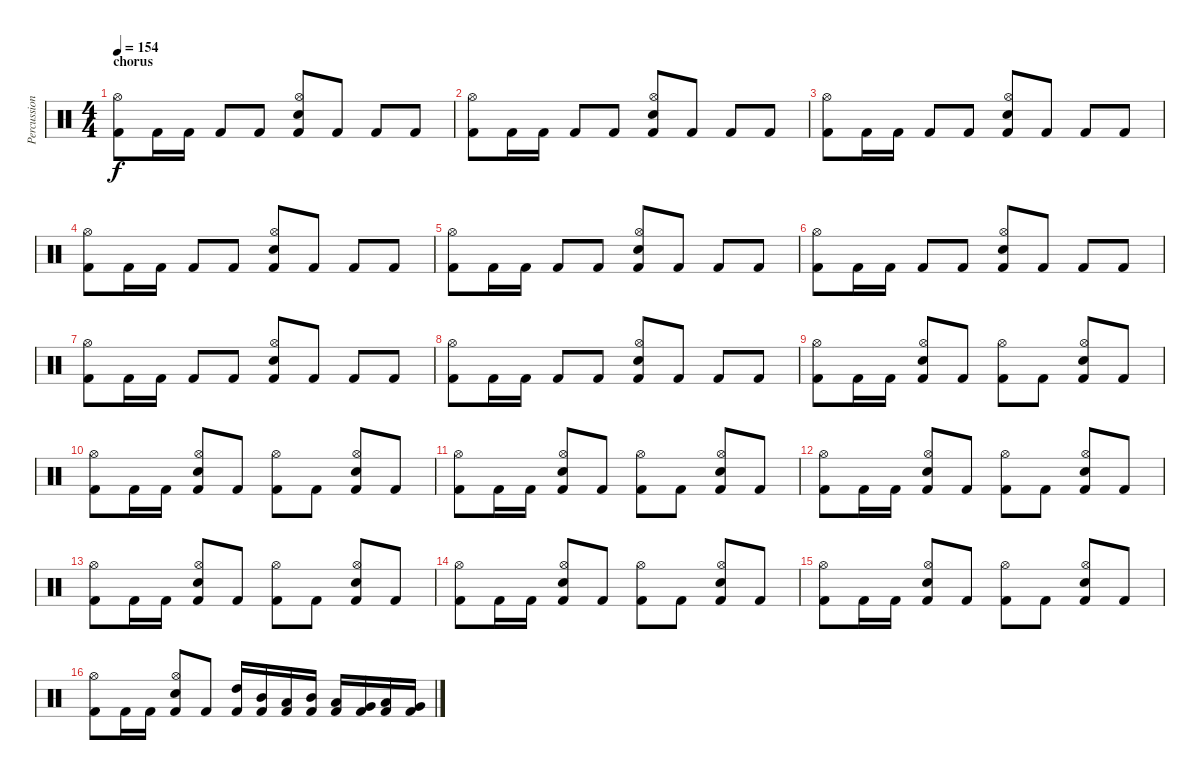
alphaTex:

\track ("Percussion" "Percussion") {instrument percussion}
\staff {score}
\articulation defaults
\ts (4 4)
\section ("" "chorus")
\tempo 154
\clef neutral
\ks c
("Kick (hit) 2" "Hi-Hat (open)").8{dy f} "Kick (hit) 2".16 "Kick (hit) 2".16 "Kick (hit) 2".8 "Kick (hit) 2".8 ("Kick (hit) 2" "Hi-Hat (open)" "Electric Snare (hit)").8 "Kick (hit) 2".8 "Kick (hit) 2".8 "Kick (hit) 2".8 |
("Kick (hit) 2" "Hi-Hat (open)").8 "Kick (hit) 2".16 "Kick (hit) 2".16 "Kick (hit) 2".8 "Kick (hit) 2".8 ("Kick (hit) 2" "Hi-Hat (open)" "Electric Snare (hit)").8 "Kick (hit) 2".8 "Kick (hit) 2".8 "Kick (hit) 2".8 |
("Kick (hit) 2" "Hi-Hat (open)").8 "Kick (hit) 2".16 "Kick (hit) 2".16 "Kick (hit) 2".8 "Kick (hit) 2".8 ("Kick (hit) 2" "Hi-Hat (open)" "Electric Snare (hit)").8 "Kick (hit) 2".8 "Kick (hit) 2".8 "Kick (hit) 2".8 |
("Kick (hit) 2" "Hi-Hat (open)").8 "Kick (hit) 2".16 "Kick (hit) 2".16 "Kick (hit) 2".8 "Kick (hit) 2".8 ("Kick (hit) 2" "Hi-Hat (open)" "Electric Snare (hit)").8 "Kick (hit) 2".8 "Kick (hit) 2".8 "Kick (hit) 2".8 |
("Kick (hit) 2" "Hi-Hat (open)").8 "Kick (hit) 2".16 "Kick (hit) 2".16 "Kick (hit) 2".8 "Kick (hit) 2".8 ("Kick (hit) 2" "Hi-Hat (open)" "Electric Snare (hit)").8 "Kick (hit) 2".8 "Kick (hit) 2".8 "Kick (hit) 2".8 |
("Kick (hit) 2" "Hi-Hat (open)").8 "Kick (hit) 2".16 "Kick (hit) 2".16 "Kick (hit) 2".8 "Kick (hit) 2".8 ("Kick (hit) 2" "Hi-Hat (open)" "Electric Snare (hit)").8 "Kick (hit) 2".8 "Kick (hit) 2".8 "Kick (hit) 2".8 |
("Kick (hit) 2" "Hi-Hat (open)").8 "Kick (hit) 2".16 "Kick (hit) 2".16 "Kick (hit) 2".8 "Kick (hit) 2".8 ("Kick (hit) 2" "Hi-Hat (open)" "Electric Snare (hit)").8 "Kick (hit) 2".8 "Kick (hit) 2".8 "Kick (hit) 2".8 |
("Kick (hit) 2" "Hi-Hat (open)").8 "Kick (hit) 2".16 "Kick (hit) 2".16 "Kick (hit) 2".8 "Kick (hit) 2".8 ("Kick (hit) 2" "Hi-Hat (open)" "Electric Snare (hit)").8 "Kick (hit) 2".8 "Kick (hit) 2".8 "Kick (hit) 2".8 |
("Kick (hit) 2" "Hi-Hat (open)").8 "Kick (hit) 2".16 "Kick (hit) 2".16 ("Kick (hit) 2" "Hi-Hat (open)" "Electric Snare (hit)").8 "Kick (hit) 2".8 ("Kick (hit) 2" "Hi-Hat (open)").8 "Kick (hit) 2".8 ("Kick (hit) 2" "Electric Snare (hit)" "Hi-Hat (open)").8 "Kick (hit) 2".8 |
("Kick (hit) 2" "Hi-Hat (open)").8 "Kick (hit) 2".16 "Kick (hit) 2".16 ("Kick (hit) 2" "Hi-Hat (open)" "Electric Snare (hit)").8 "Kick (hit) 2".8 ("Kick (hit) 2" "Hi-Hat (open)").8 "Kick (hit) 2".8 ("Kick (hit) 2" "Electric Snare (hit)" "Hi-Hat (open)").8 "Kick (hit) 2".8 |
("Kick (hit) 2" "Hi-Hat (open)").8 "Kick (hit) 2".16 "Kick (hit) 2".16 ("Kick (hit) 2" "Hi-Hat (open)" "Electric Snare (hit)").8 "Kick (hit) 2".8 ("Kick (hit) 2" "Hi-Hat (open)").8 "Kick (hit) 2".8 ("Kick (hit) 2" "Electric Snare (hit)" "Hi-Hat (open)").8 "Kick (hit) 2".8 |
("Kick (hit) 2" "Hi-Hat (open)").8 "Kick (hit) 2".16 "Kick (hit) 2".16 ("Kick (hit) 2" "Hi-Hat (open)" "Electric Snare (hit)").8 "Kick (hit) 2".8 ("Kick (hit) 2" "Hi-Hat (open)").8 "Kick (hit) 2".8 ("Kick (hit) 2" "Electric Snare (hit)" "Hi-Hat (open)").8 "Kick (hit) 2".8 |
("Kick (hit) 2" "Hi-Hat (open)").8 "Kick (hit) 2".16 "Kick (hit) 2".16 ("Kick (hit) 2" "Hi-Hat (open)" "Electric Snare (hit)").8 "Kick (hit) 2".8 ("Kick (hit) 2" "Hi-Hat (open)").8 "Kick (hit) 2".8 ("Kick (hit) 2" "Electric Snare (hit)" "Hi-Hat (open)").8 "Kick (hit) 2".8 |
("Kick (hit) 2" "Hi-Hat (open)").8 "Kick (hit) 2".16 "Kick (hit) 2".16 ("Kick (hit) 2" "Hi-Hat (open)" "Electric Snare (hit)").8 "Kick (hit) 2".8 ("Kick (hit) 2" "Hi-Hat (open)").8 "Kick (hit) 2".8 ("Kick (hit) 2" "Electric Snare (hit)" "Hi-Hat (open)").8 "Kick (hit) 2".8 |
("Kick (hit) 2" "Hi-Hat (open)").8 "Kick (hit) 2".16 "Kick (hit) 2".16 ("Kick (hit) 2" "Hi-Hat (open)" "Electric Snare (hit)").8 "Kick (hit) 2".8 ("Kick (hit) 2" "Hi-Hat (open)").8 "Kick (hit) 2".8 ("Kick (hit) 2" "Electric Snare (hit)" "Hi-Hat (open)").8 "Kick (hit) 2".8 |
("Kick (hit) 2" "Hi-Hat (open)").8 "Kick (hit) 2".16 "Kick (hit) 2".16 ("Kick (hit) 2" "Hi-Hat (open)" "Electric Snare (hit)").8 "Kick (hit) 2".8 ("Kick (hit) 2" "High Tom (hit)").16 ("Kick (hit) 2" "Mid Tom (hit)").16 ("Kick (hit) 2" "Low Tom (hit)").16 ("Kick (hit) 2" "Mid Tom (hit)").16 ("Kick (hit) 2" "Low Tom (hit)").16 ("Kick (hit) 2" "Very Low Tom (hit)").16 ("Kick (hit) 2" "Low Tom (hit)").16 ("Kick (hit) 2" "Very Low Tom (hit)").16
